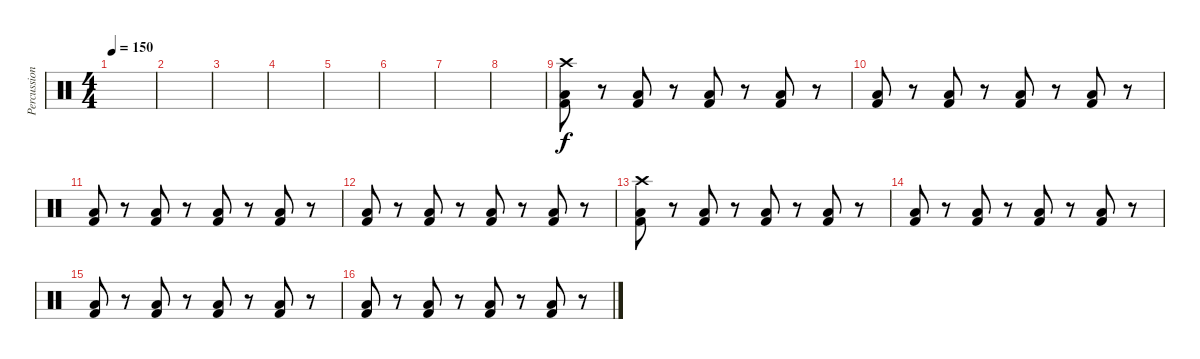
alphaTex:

\track ("Percussion" "Percussion") {instrument percussion}
\staff {score}
\articulation defaults
\ts (4 4)
\tempo 150
\clef neutral
\ks c
|
|
|
|
|
|
|
|
("Crash high (hit)" "Low Floor Tom (hit)" "Kick (hit) 2").8 r.8 ("Low Floor Tom (hit)" "Kick (hit) 2").8 r.8 ("Low Floor Tom (hit)" "Kick (hit) 2").8 r.8 ("Low Floor Tom (hit)" "Kick (hit) 2").8 r.8 |
("Low Floor Tom (hit)" "Kick (hit) 2").8 r.8 ("Low Floor Tom (hit)" "Kick (hit) 2").8 r.8 ("Low Floor Tom (hit)" "Kick (hit) 2").8 r.8 ("Low Floor Tom (hit)" "Kick (hit) 2").8 r.8 |
("Low Floor Tom (hit)" "Kick (hit) 2").8 r.8 ("Low Floor Tom (hit)" "Kick (hit) 2").8 r.8 ("Low Floor Tom (hit)" "Kick (hit) 2").8 r.8 ("Low Floor Tom (hit)" "Kick (hit) 2").8 r.8 |
("Low Floor Tom (hit)" "Kick (hit) 2").8 r.8 ("Low Floor Tom (hit)" "Kick (hit) 2").8 r.8 ("Low Floor Tom (hit)" "Kick (hit) 2").8 r.8 ("Low Floor Tom (hit)" "Kick (hit) 2").8 r.8 |
("Crash high (hit)" "Low Floor Tom (hit)" "Kick (hit) 2").8 r.8 ("Low Floor Tom (hit)" "Kick (hit) 2").8 r.8 ("Low Floor Tom (hit)" "Kick (hit) 2").8 r.8 ("Low Floor Tom (hit)" "Kick (hit) 2").8 r.8 |
("Low Floor Tom (hit)" "Kick (hit) 2").8 r.8 ("Low Floor Tom (hit)" "Kick (hit) 2").8 r.8 ("Low Floor Tom (hit)" "Kick (hit) 2").8 r.8 ("Low Floor Tom (hit)" "Kick (hit) 2").8 r.8 |
("Low Floor Tom (hit)" "Kick (hit) 2").8 r.8 ("Low Floor Tom (hit)" "Kick (hit) 2").8 r.8 ("Low Floor Tom (hit)" "Kick (hit) 2").8 r.8 ("Low Floor Tom (hit)" "Kick (hit) 2").8 r.8 |
("Low Floor Tom (hit)" "Kick (hit) 2").8 r.8 ("Low Floor Tom (hit)" "Kick (hit) 2").8 r.8 ("Low Floor Tom (hit)" "Kick (hit) 2").8 r.8 ("Low Floor Tom (hit)" "Kick (hit) 2").8 r.8
